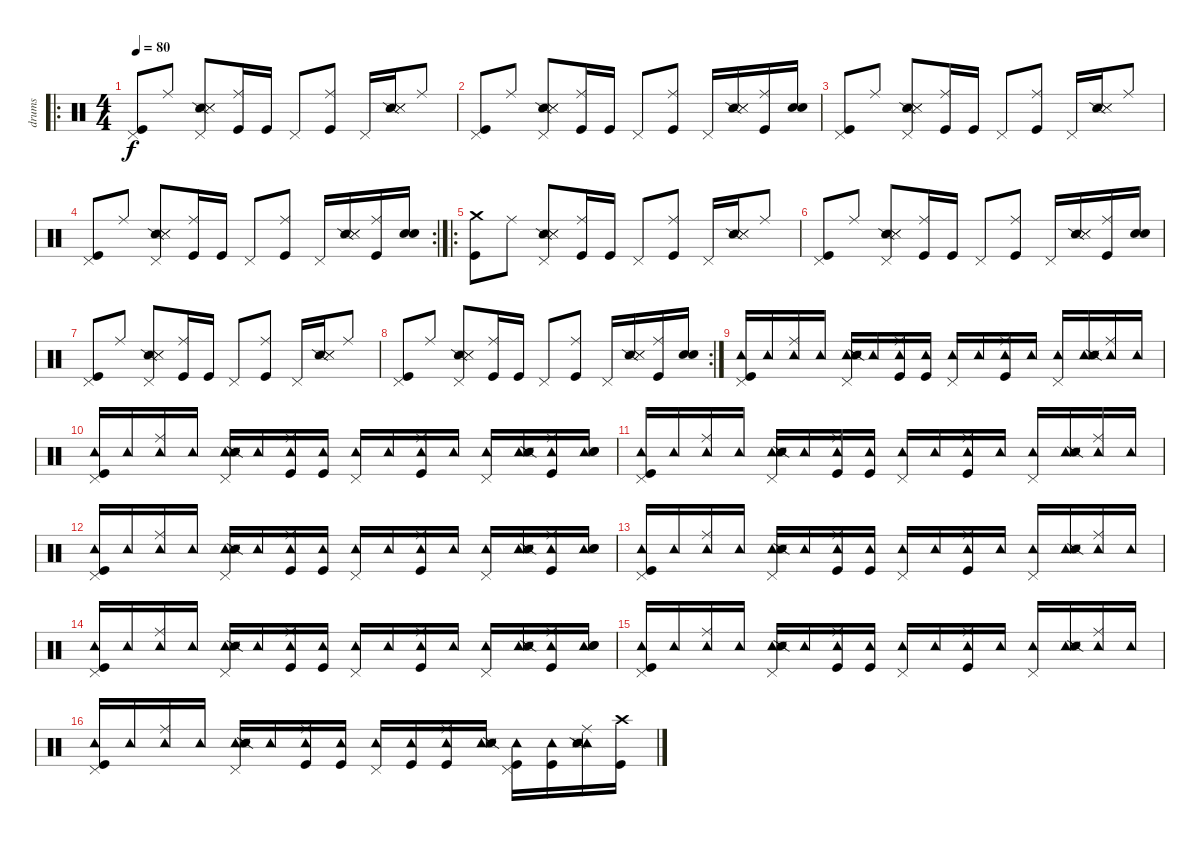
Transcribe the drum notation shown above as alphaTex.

\track ("drums" "drums") {instrument percussion}
\staff {score}
\articulation defaults
\ro
\ts (4 4)
\tempo 80
\clef neutral
\ks c
("Pedal Hi-Hat (hit)" "Kick (hit)").8{dy f} "Ride (middle)".8 ("Pedal Hi-Hat (hit)" "Snare (side stick) 2" "Metronome (hit)" "Metronome (hit)").8 ("Ride (middle)" "Kick (hit)").16 "Kick (hit)".16 "Pedal Hi-Hat (hit)".8 ("Ride (middle)" "Kick (hit)").8 "Pedal Hi-Hat (hit)".16 ("Snare (side stick) 2" "Metronome (hit)" "Metronome (hit)").16 "Ride (middle)".8 |
("Pedal Hi-Hat (hit)" "Kick (hit)").8 "Ride (middle)".8 ("Pedal Hi-Hat (hit)" "Snare (side stick) 2" "Metronome (hit)" "Metronome (hit)").8 ("Ride (middle)" "Kick (hit)").16 "Kick (hit)".16 "Pedal Hi-Hat (hit)".8 ("Ride (middle)" "Kick (hit)").8 "Pedal Hi-Hat (hit)".16 ("Snare (side stick) 2" "Metronome (hit)" "Metronome (hit)").16 ("Ride (middle)" "Kick (hit)").16 ("Snare (hit) 2" "Snare (hit) 2").16 |
("Pedal Hi-Hat (hit)" "Kick (hit)").8 "Ride (middle)".8 ("Pedal Hi-Hat (hit)" "Snare (side stick) 2" "Metronome (hit)" "Metronome (hit)").8 ("Ride (middle)" "Kick (hit)").16 "Kick (hit)".16 "Pedal Hi-Hat (hit)".8 ("Ride (middle)" "Kick (hit)").8 "Pedal Hi-Hat (hit)".16 ("Snare (side stick) 2" "Metronome (hit)" "Metronome (hit)").16 "Ride (middle)".8 |
\rc 2
("Pedal Hi-Hat (hit)" "Kick (hit)").8 "Ride (middle)".8 ("Pedal Hi-Hat (hit)" "Snare (side stick) 2" "Metronome (hit)" "Metronome (hit)").8 ("Ride (middle)" "Kick (hit)").16 "Kick (hit)".16 "Pedal Hi-Hat (hit)".8 ("Ride (middle)" "Kick (hit)").8 "Pedal Hi-Hat (hit)".16 ("Snare (side stick) 2" "Metronome (hit)" "Metronome (hit)").16 ("Ride (middle)" "Kick (hit)").16 ("Snare (hit) 2" "Snare (hit) 2").16 |
\ro
("Crash medium (hit)" "Kick (hit)").8 "Ride (middle)".8 ("Pedal Hi-Hat (hit)" "Snare (side stick) 2" "Metronome (hit)" "Metronome (hit)").8 ("Ride (middle)" "Kick (hit)").16 "Kick (hit)".16 "Pedal Hi-Hat (hit)".8 ("Ride (middle)" "Kick (hit)").8 "Pedal Hi-Hat (hit)".16 ("Snare (side stick) 2" "Metronome (hit)" "Metronome (hit)").16 "Ride (middle)".8 |
("Pedal Hi-Hat (hit)" "Kick (hit)").8 "Ride (middle)".8 ("Pedal Hi-Hat (hit)" "Snare (side stick) 2" "Metronome (hit)" "Metronome (hit)").8 ("Ride (middle)" "Kick (hit)").16 "Kick (hit)".16 "Pedal Hi-Hat (hit)".8 ("Ride (middle)" "Kick (hit)").8 "Pedal Hi-Hat (hit)".16 ("Snare (side stick) 2" "Metronome (hit)" "Metronome (hit)").16 ("Ride (middle)" "Kick (hit)").16 ("Snare (hit) 2" "Snare (hit) 2").16 |
("Pedal Hi-Hat (hit)" "Kick (hit)").8 "Ride (middle)".8 ("Pedal Hi-Hat (hit)" "Snare (side stick) 2" "Metronome (hit)" "Metronome (hit)").8 ("Ride (middle)" "Kick (hit)").16 "Kick (hit)".16 "Pedal Hi-Hat (hit)".8 ("Ride (middle)" "Kick (hit)").8 "Pedal Hi-Hat (hit)".16 ("Snare (side stick) 2" "Metronome (hit)" "Metronome (hit)").16 "Ride (middle)".8 |
\rc 2
("Pedal Hi-Hat (hit)" "Kick (hit)").8 "Ride (middle)".8 ("Pedal Hi-Hat (hit)" "Snare (side stick) 2" "Metronome (hit)" "Metronome (hit)").8 ("Ride (middle)" "Kick (hit)").16 "Kick (hit)".16 "Pedal Hi-Hat (hit)".8 ("Ride (middle)" "Kick (hit)").8 "Pedal Hi-Hat (hit)".16 ("Snare (side stick) 2" "Metronome (hit)" "Metronome (hit)").16 ("Ride (middle)" "Kick (hit)").16 ("Snare (hit) 2" "Snare (hit) 2").16 |
("Pedal Hi-Hat (hit)" "Tambourine (hit)" "Kick (hit)").16 "Tambourine (hit)".16 ("Ride (middle)" "Tambourine (hit)").16 "Tambourine (hit)".16 ("Pedal Hi-Hat (hit)" "Tambourine (hit)" "Snare (side stick) 2" "Metronome (hit)" "Metronome (hit)").16 "Tambourine (hit)".16 ("Ride (middle)" "Tambourine (hit)" "Kick (hit)").16 ("Tambourine (hit)" "Kick (hit)").16 ("Pedal Hi-Hat (hit)" "Tambourine (hit)").16 "Tambourine (hit)".16 ("Ride (middle)" "Tambourine (hit)" "Kick (hit)").16 "Tambourine (hit)".16 ("Pedal Hi-Hat (hit)" "Tambourine (hit)").16 ("Tambourine (hit)" "Snare (side stick) 2" "Metronome (hit)" "Metronome (hit)").16 ("Ride (middle)" "Tambourine (hit)").16 "Tambourine (hit)".16 |
("Pedal Hi-Hat (hit)" "Tambourine (hit)" "Kick (hit)").16 "Tambourine (hit)".16 ("Ride (middle)" "Tambourine (hit)").16 "Tambourine (hit)".16 ("Pedal Hi-Hat (hit)" "Tambourine (hit)" "Snare (side stick) 2" "Metronome (hit)" "Metronome (hit)").16 "Tambourine (hit)".16 ("Ride (middle)" "Tambourine (hit)" "Kick (hit)").16 ("Tambourine (hit)" "Kick (hit)").16 ("Pedal Hi-Hat (hit)" "Tambourine (hit)").16 "Tambourine (hit)".16 ("Ride (middle)" "Tambourine (hit)" "Kick (hit)").16 "Tambourine (hit)".16 ("Pedal Hi-Hat (hit)" "Tambourine (hit)").16 ("Tambourine (hit)" "Snare (side stick) 2" "Metronome (hit)" "Metronome (hit)").16 ("Ride (middle)" "Tambourine (hit)" "Kick (hit)").16 ("Tambourine (hit)" "Snare (hit) 2" "Snare (hit) 2").16 |
("Pedal Hi-Hat (hit)" "Tambourine (hit)" "Kick (hit)").16 "Tambourine (hit)".16 ("Ride (middle)" "Tambourine (hit)").16 "Tambourine (hit)".16 ("Pedal Hi-Hat (hit)" "Tambourine (hit)" "Snare (side stick) 2" "Metronome (hit)" "Metronome (hit)").16 "Tambourine (hit)".16 ("Ride (middle)" "Tambourine (hit)" "Kick (hit)").16 ("Tambourine (hit)" "Kick (hit)").16 ("Pedal Hi-Hat (hit)" "Tambourine (hit)").16 "Tambourine (hit)".16 ("Ride (middle)" "Tambourine (hit)" "Kick (hit)").16 "Tambourine (hit)".16 ("Pedal Hi-Hat (hit)" "Tambourine (hit)").16 ("Tambourine (hit)" "Snare (side stick) 2" "Metronome (hit)" "Metronome (hit)").16 ("Ride (middle)" "Tambourine (hit)").16 "Tambourine (hit)".16 |
("Pedal Hi-Hat (hit)" "Tambourine (hit)" "Kick (hit)").16 "Tambourine (hit)".16 ("Ride (middle)" "Tambourine (hit)").16 "Tambourine (hit)".16 ("Pedal Hi-Hat (hit)" "Tambourine (hit)" "Snare (side stick) 2" "Metronome (hit)" "Metronome (hit)").16 "Tambourine (hit)".16 ("Ride (middle)" "Tambourine (hit)" "Kick (hit)").16 ("Tambourine (hit)" "Kick (hit)").16 ("Pedal Hi-Hat (hit)" "Tambourine (hit)").16 "Tambourine (hit)".16 ("Ride (middle)" "Tambourine (hit)" "Kick (hit)").16 "Tambourine (hit)".16 ("Pedal Hi-Hat (hit)" "Tambourine (hit)").16 ("Tambourine (hit)" "Snare (side stick) 2" "Metronome (hit)" "Metronome (hit)").16 ("Ride (middle)" "Tambourine (hit)" "Kick (hit)").16 ("Tambourine (hit)" "Snare (hit) 2" "Snare (hit) 2").16 |
("Pedal Hi-Hat (hit)" "Tambourine (hit)" "Kick (hit)").16 "Tambourine (hit)".16 ("Ride (middle)" "Tambourine (hit)").16 "Tambourine (hit)".16 ("Pedal Hi-Hat (hit)" "Tambourine (hit)" "Snare (side stick) 2" "Metronome (hit)" "Metronome (hit)").16 "Tambourine (hit)".16 ("Ride (middle)" "Tambourine (hit)" "Kick (hit)").16 ("Tambourine (hit)" "Kick (hit)").16 ("Pedal Hi-Hat (hit)" "Tambourine (hit)").16 "Tambourine (hit)".16 ("Ride (middle)" "Tambourine (hit)" "Kick (hit)").16 "Tambourine (hit)".16 ("Pedal Hi-Hat (hit)" "Tambourine (hit)").16 ("Tambourine (hit)" "Snare (side stick) 2" "Metronome (hit)" "Metronome (hit)").16 ("Ride (middle)" "Tambourine (hit)").16 "Tambourine (hit)".16 |
("Pedal Hi-Hat (hit)" "Tambourine (hit)" "Kick (hit)").16 "Tambourine (hit)".16 ("Ride (middle)" "Tambourine (hit)").16 "Tambourine (hit)".16 ("Pedal Hi-Hat (hit)" "Tambourine (hit)" "Snare (side stick) 2" "Metronome (hit)" "Metronome (hit)").16 "Tambourine (hit)".16 ("Ride (middle)" "Tambourine (hit)" "Kick (hit)").16 ("Tambourine (hit)" "Kick (hit)").16 ("Pedal Hi-Hat (hit)" "Tambourine (hit)").16 "Tambourine (hit)".16 ("Ride (middle)" "Tambourine (hit)" "Kick (hit)").16 "Tambourine (hit)".16 ("Pedal Hi-Hat (hit)" "Tambourine (hit)").16 ("Tambourine (hit)" "Snare (side stick) 2" "Metronome (hit)" "Metronome (hit)").16 ("Ride (middle)" "Tambourine (hit)" "Kick (hit)").16 ("Tambourine (hit)" "Snare (hit) 2" "Snare (hit) 2").16 |
("Pedal Hi-Hat (hit)" "Tambourine (hit)" "Kick (hit)").16 "Tambourine (hit)".16 ("Ride (middle)" "Tambourine (hit)").16 "Tambourine (hit)".16 ("Pedal Hi-Hat (hit)" "Tambourine (hit)" "Snare (side stick) 2" "Metronome (hit)" "Metronome (hit)").16 "Tambourine (hit)".16 ("Ride (middle)" "Tambourine (hit)" "Kick (hit)").16 ("Tambourine (hit)" "Kick (hit)").16 ("Pedal Hi-Hat (hit)" "Tambourine (hit)").16 "Tambourine (hit)".16 ("Ride (middle)" "Tambourine (hit)" "Kick (hit)").16 "Tambourine (hit)".16 ("Pedal Hi-Hat (hit)" "Tambourine (hit)").16 ("Tambourine (hit)" "Snare (side stick) 2" "Metronome (hit)" "Metronome (hit)").16 ("Ride (middle)" "Tambourine (hit)").16 "Tambourine (hit)".16 |
("Pedal Hi-Hat (hit)" "Tambourine (hit)" "Kick (hit)").16 "Tambourine (hit)".16 ("Ride (middle)" "Tambourine (hit)").16 "Tambourine (hit)".16 ("Pedal Hi-Hat (hit)" "Tambourine (hit)" "Snare (side stick) 2" "Metronome (hit)" "Metronome (hit)").16 "Tambourine (hit)".16 ("Ride (middle)" "Tambourine (hit)" "Kick (hit)").16 ("Tambourine (hit)" "Kick (hit)").16 ("Pedal Hi-Hat (hit)" "Tambourine (hit)").16 ("Tambourine (hit)" "Kick (hit)").16 ("Ride (middle)" "Tambourine (hit)" "Kick (hit)").16 ("Tambourine (hit)" "Snare (side stick) 2" "Metronome (hit)" "Metronome (hit)").16 ("Pedal Hi-Hat (hit)" "Tambourine (hit)" "Kick (hit)").16 ("Tambourine (hit)" "Kick (hit)").16 ("Ride (middle)" "Tambourine (hit)" "Snare (side stick) 2" "Metronome (hit)" "Metronome (hit)").16 ("Crash high (hit)" "Kick (hit)").16
